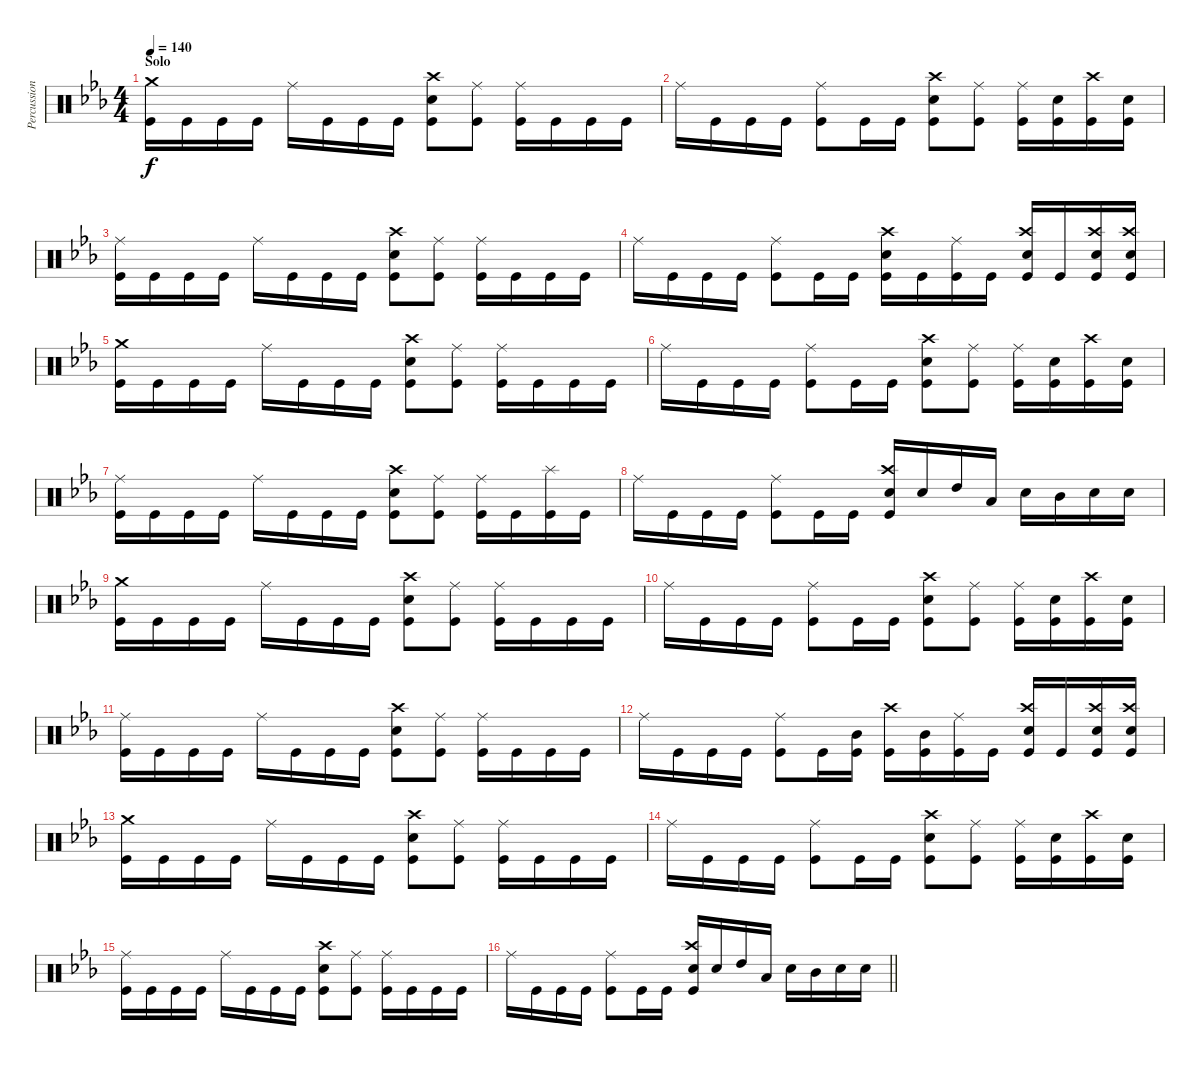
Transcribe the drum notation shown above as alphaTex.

\track ("Percussion" "Percussion") {instrument percussion}
\staff {score}
\articulation defaults
\ts (4 4)
\section ("" "Solo")
\tempo 140
\clef neutral
\ks eb
("Crash medium (hit)" "Kick (hit)").16{dy f} "Kick (hit)".16 "Kick (hit)".16 "Kick (hit)".16 "Ride (middle)".16 "Kick (hit)".16 "Kick (hit)".16 "Kick (hit)".16 ("Crash high (hit)" "Electric Snare (hit)" "Kick (hit)").8 ("Ride (middle)" "Kick (hit)").8 ("Ride (middle)" "Kick (hit)").16 "Kick (hit)".16 "Kick (hit)".16 "Kick (hit)".16 |
"Ride (middle)".16 "Kick (hit)".16 "Kick (hit)".16 "Kick (hit)".16 ("Ride (middle)" "Kick (hit)").8 "Kick (hit)".16 "Kick (hit)".16 ("Crash high (hit)" "Electric Snare (hit)" "Kick (hit)").8 ("Ride (middle)" "Kick (hit)").8 ("Ride (middle)" "Kick (hit)").16 ("Electric Snare (hit)" "Kick (hit)").16 ("Crash high (hit)" "Kick (hit)").16 ("Electric Snare (hit)" "Kick (hit)").16 |
("Ride (middle)" "Kick (hit)").16 "Kick (hit)".16 "Kick (hit)".16 "Kick (hit)".16 "Ride (middle)".16 "Kick (hit)".16 "Kick (hit)".16 "Kick (hit)".16 ("Crash high (hit)" "Electric Snare (hit)" "Kick (hit)").8 ("Ride (middle)" "Kick (hit)").8 ("Ride (middle)" "Kick (hit)").16 "Kick (hit)".16 "Kick (hit)".16 "Kick (hit)".16 |
"Ride (middle)".16 "Kick (hit)".16 "Kick (hit)".16 "Kick (hit)".16 ("Ride (middle)" "Kick (hit)").8 "Kick (hit)".16 "Kick (hit)".16 ("Crash high (hit)" "Electric Snare (hit)" "Kick (hit)").16 "Kick (hit)".16 ("Ride (middle)" "Kick (hit)").16 "Kick (hit)".16 ("Crash high (hit)" "Electric Snare (hit)" "Kick (hit)").16 "Kick (hit)".16 ("Crash high (hit)" "Electric Snare (hit)" "Kick (hit)").16 ("Crash high (hit)" "Electric Snare (hit)" "Kick (hit)").16 |
("Crash medium (hit)" "Kick (hit)").16 "Kick (hit)".16 "Kick (hit)".16 "Kick (hit)".16 "Ride (middle)".16 "Kick (hit)".16 "Kick (hit)".16 "Kick (hit)".16 ("Crash high (hit)" "Electric Snare (hit)" "Kick (hit)").8 ("Ride (middle)" "Kick (hit)").8 ("Ride (middle)" "Kick (hit)").16 "Kick (hit)".16 "Kick (hit)".16 "Kick (hit)".16 |
"Ride (middle)".16 "Kick (hit)".16 "Kick (hit)".16 "Kick (hit)".16 ("Ride (middle)" "Kick (hit)").8 "Kick (hit)".16 "Kick (hit)".16 ("Crash high (hit)" "Electric Snare (hit)" "Kick (hit)").8 ("Ride (middle)" "Kick (hit)").8 ("Ride (middle)" "Kick (hit)").16 ("Electric Snare (hit)" "Kick (hit)").16 ("Crash high (hit)" "Kick (hit)").16 ("Electric Snare (hit)" "Kick (hit)").16 |
("Ride (middle)" "Kick (hit)").16 "Kick (hit)".16 "Kick (hit)".16 "Kick (hit)".16 "Ride (middle)".16 "Kick (hit)".16 "Kick (hit)".16 "Kick (hit)".16 ("Crash high (hit)" "Electric Snare (hit)" "Kick (hit)").8 ("Ride (middle)" "Kick (hit)").8 ("Ride (middle)" "Kick (hit)").16 "Kick (hit)".16 ("Splash (hit)" "Kick (hit)").16 "Kick (hit)".16 |
"Ride (middle)".16 "Kick (hit)".16 "Kick (hit)".16 "Kick (hit)".16 ("Ride (middle)" "Kick (hit)").8 "Kick (hit)".16 "Kick (hit)".16 ("Crash high (hit)" "Electric Snare (hit)" "Kick (hit)").16 "Electric Snare (hit)".16 "High Tom (hit)".16 "Low Tom (hit)".16 "Electric Snare (hit)".16 "Mid Tom (hit)".16 "Electric Snare (hit)".16 "Electric Snare (hit)".16 |
("Crash medium (hit)" "Kick (hit)").16 "Kick (hit)".16 "Kick (hit)".16 "Kick (hit)".16 "Ride (middle)".16 "Kick (hit)".16 "Kick (hit)".16 "Kick (hit)".16 ("Crash high (hit)" "Electric Snare (hit)" "Kick (hit)").8 ("Ride (middle)" "Kick (hit)").8 ("Ride (middle)" "Kick (hit)").16 "Kick (hit)".16 "Kick (hit)".16 "Kick (hit)".16 |
"Ride (middle)".16 "Kick (hit)".16 "Kick (hit)".16 "Kick (hit)".16 ("Ride (middle)" "Kick (hit)").8 "Kick (hit)".16 "Kick (hit)".16 ("Crash high (hit)" "Electric Snare (hit)" "Kick (hit)").8 ("Ride (middle)" "Kick (hit)").8 ("Ride (middle)" "Kick (hit)").16 ("Electric Snare (hit)" "Kick (hit)").16 ("Crash high (hit)" "Kick (hit)").16 ("Electric Snare (hit)" "Kick (hit)").16 |
("Ride (middle)" "Kick (hit)").16 "Kick (hit)".16 "Kick (hit)".16 "Kick (hit)".16 "Ride (middle)".16 "Kick (hit)".16 "Kick (hit)".16 "Kick (hit)".16 ("Crash high (hit)" "Electric Snare (hit)" "Kick (hit)").8 ("Ride (middle)" "Kick (hit)").8 ("Ride (middle)" "Kick (hit)").16 "Kick (hit)".16 "Kick (hit)".16 "Kick (hit)".16 |
"Ride (middle)".16 "Kick (hit)".16 "Kick (hit)".16 "Kick (hit)".16 ("Ride (middle)" "Kick (hit)").8 "Kick (hit)".16 ("Mid Tom (hit)" "Kick (hit)").16 ("Crash high (hit)" "Kick (hit)").16 ("Mid Tom (hit)" "Kick (hit)").16 ("Ride (middle)" "Kick (hit)").16 "Kick (hit)".16 ("Crash high (hit)" "Electric Snare (hit)" "Kick (hit)").16 "Kick (hit)".16 ("Crash high (hit)" "Electric Snare (hit)" "Kick (hit)").16 ("Crash high (hit)" "Electric Snare (hit)" "Kick (hit)").16 |
("Crash medium (hit)" "Kick (hit)").16 "Kick (hit)".16 "Kick (hit)".16 "Kick (hit)".16 "Ride (middle)".16 "Kick (hit)".16 "Kick (hit)".16 "Kick (hit)".16 ("Crash high (hit)" "Electric Snare (hit)" "Kick (hit)").8 ("Ride (middle)" "Kick (hit)").8 ("Ride (middle)" "Kick (hit)").16 "Kick (hit)".16 "Kick (hit)".16 "Kick (hit)".16 |
"Ride (middle)".16 "Kick (hit)".16 "Kick (hit)".16 "Kick (hit)".16 ("Ride (middle)" "Kick (hit)").8 "Kick (hit)".16 "Kick (hit)".16 ("Crash high (hit)" "Electric Snare (hit)" "Kick (hit)").8 ("Ride (middle)" "Kick (hit)").8 ("Ride (middle)" "Kick (hit)").16 ("Electric Snare (hit)" "Kick (hit)").16 ("Crash high (hit)" "Kick (hit)").16 ("Electric Snare (hit)" "Kick (hit)").16 |
("Ride (middle)" "Kick (hit)").16 "Kick (hit)".16 "Kick (hit)".16 "Kick (hit)".16 "Ride (middle)".16 "Kick (hit)".16 "Kick (hit)".16 "Kick (hit)".16 ("Crash high (hit)" "Electric Snare (hit)" "Kick (hit)").8 ("Ride (middle)" "Kick (hit)").8 ("Ride (middle)" "Kick (hit)").16 "Kick (hit)".16 "Kick (hit)".16 "Kick (hit)".16 |
\barLineRight lightlight "Ride (middle)".16 "Kick (hit)".16 "Kick (hit)".16 "Kick (hit)".16
("Ride (middle)" "Kick (hit)").8 "Kick (hit)".16 "Kick (hit)".16 ("Crash high (hit)" "Electric Snare (hit)" "Kick (hit)").16 "Electric Snare (hit)".16 "High Tom (hit)".16 "Low Tom (hit)".16 "Electric Snare (hit)".16 "Mid Tom (hit)".16 "Electric Snare (hit)".16 "Electric Snare (hit)".16
